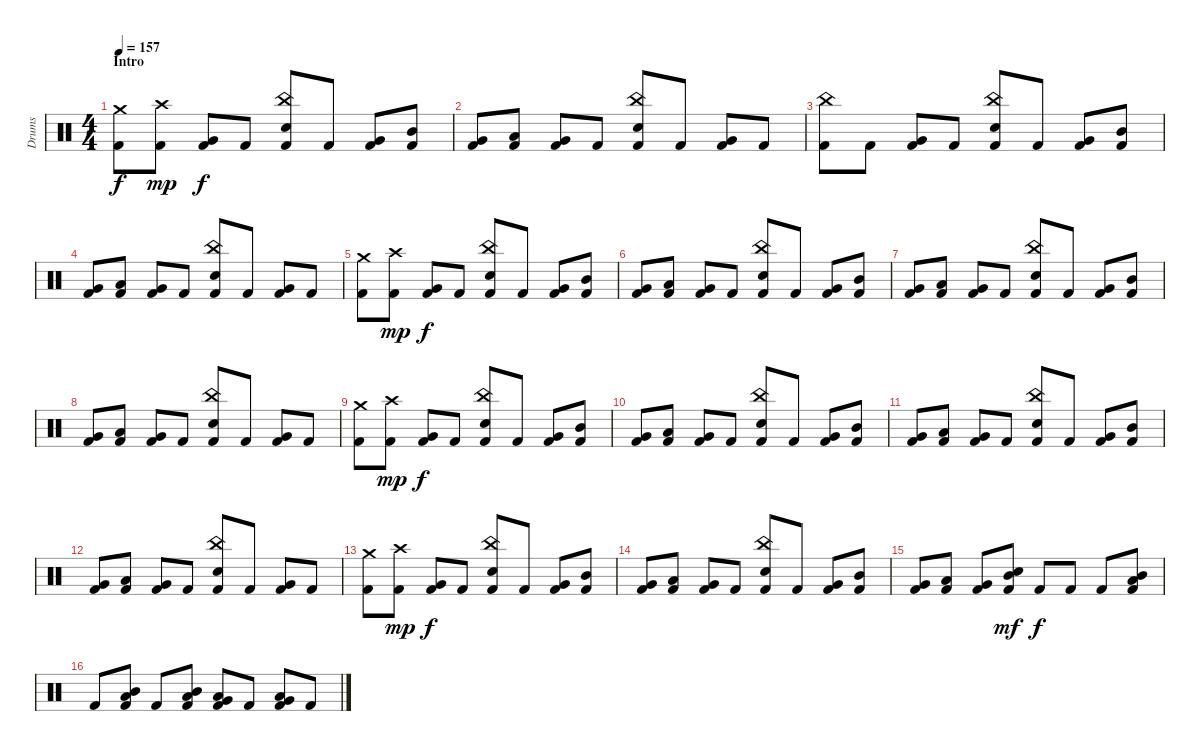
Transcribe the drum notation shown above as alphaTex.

\track ("Drums" "Drums") {instrument percussion}
\staff {score}
\articulation defaults
\ts (4 4)
\section ("" "Intro")
\tempo 157
\clef neutral
\ks c
("Crash medium (hit)" "Kick (hit) 2").8{dy f} ("Crash high (hit)" "Kick (hit) 2").8{dy mp} ("Very Low Tom (hit)" "Kick (hit) 2").8{dy f} "Kick (hit) 2".8 ("China (hit)" "Electric Snare (hit)" "Kick (hit) 2").8 "Kick (hit) 2".8 ("Very Low Tom (hit)" "Kick (hit) 2").8 ("Mid Tom (hit)" "Kick (hit) 2").8 |
("Very Low Tom (hit)" "Kick (hit) 2").8 ("Low Tom (hit)" "Kick (hit) 2").8 ("Very Low Tom (hit)" "Kick (hit) 2").8 "Kick (hit) 2".8 ("China (hit)" "Electric Snare (hit)" "Kick (hit) 2").8 "Kick (hit) 2".8 ("Very Low Tom (hit)" "Kick (hit) 2").8 "Kick (hit) 2".8 |
("China (hit)" "Kick (hit) 2").8 "Kick (hit) 2".8 ("Very Low Tom (hit)" "Kick (hit) 2").8 "Kick (hit) 2".8 ("China (hit)" "Electric Snare (hit)" "Kick (hit) 2").8 "Kick (hit) 2".8 ("Very Low Tom (hit)" "Kick (hit) 2").8 ("Mid Tom (hit)" "Kick (hit) 2").8 |
("Very Low Tom (hit)" "Kick (hit) 2").8 ("Low Tom (hit)" "Kick (hit) 2").8 ("Very Low Tom (hit)" "Kick (hit) 2").8 "Kick (hit) 2".8 ("China (hit)" "Electric Snare (hit)" "Kick (hit) 2").8 "Kick (hit) 2".8 ("Very Low Tom (hit)" "Kick (hit) 2").8 "Kick (hit) 2".8 |
("Crash medium (hit)" "Kick (hit) 2").8 ("Crash high (hit)" "Kick (hit) 2").8{dy mp} ("Very Low Tom (hit)" "Kick (hit) 2").8{dy f} "Kick (hit) 2".8 ("China (hit)" "Electric Snare (hit)" "Kick (hit) 2").8 "Kick (hit) 2".8 ("Very Low Tom (hit)" "Kick (hit) 2").8 ("Mid Tom (hit)" "Kick (hit) 2").8 |
("Very Low Tom (hit)" "Kick (hit) 2").8 ("Low Tom (hit)" "Kick (hit) 2").8 ("Very Low Tom (hit)" "Kick (hit) 2").8 "Kick (hit) 2".8 ("China (hit)" "Electric Snare (hit)" "Kick (hit) 2").8 "Kick (hit) 2".8 ("Very Low Tom (hit)" "Kick (hit) 2").8 ("Mid Tom (hit)" "Kick (hit) 2").8 |
("Very Low Tom (hit)" "Kick (hit) 2").8 ("Low Tom (hit)" "Kick (hit) 2").8 ("Very Low Tom (hit)" "Kick (hit) 2").8 "Kick (hit) 2".8 ("China (hit)" "Electric Snare (hit)" "Kick (hit) 2").8 "Kick (hit) 2".8 ("Very Low Tom (hit)" "Kick (hit) 2").8 ("Mid Tom (hit)" "Kick (hit) 2").8 |
("Very Low Tom (hit)" "Kick (hit) 2").8 ("Low Tom (hit)" "Kick (hit) 2").8 ("Very Low Tom (hit)" "Kick (hit) 2").8 "Kick (hit) 2".8 ("China (hit)" "Electric Snare (hit)" "Kick (hit) 2").8 "Kick (hit) 2".8 ("Very Low Tom (hit)" "Kick (hit) 2").8 "Kick (hit) 2".8 |
("Crash medium (hit)" "Kick (hit) 2").8 ("Crash high (hit)" "Kick (hit) 2").8{dy mp} ("Very Low Tom (hit)" "Kick (hit) 2").8{dy f} "Kick (hit) 2".8 ("China (hit)" "Electric Snare (hit)" "Kick (hit) 2").8 "Kick (hit) 2".8 ("Very Low Tom (hit)" "Kick (hit) 2").8 ("Mid Tom (hit)" "Kick (hit) 2").8 |
("Very Low Tom (hit)" "Kick (hit) 2").8 ("Low Tom (hit)" "Kick (hit) 2").8 ("Very Low Tom (hit)" "Kick (hit) 2").8 "Kick (hit) 2".8 ("China (hit)" "Electric Snare (hit)" "Kick (hit) 2").8 "Kick (hit) 2".8 ("Very Low Tom (hit)" "Kick (hit) 2").8 ("Mid Tom (hit)" "Kick (hit) 2").8 |
("Very Low Tom (hit)" "Kick (hit) 2").8 ("Low Tom (hit)" "Kick (hit) 2").8 ("Very Low Tom (hit)" "Kick (hit) 2").8 "Kick (hit) 2".8 ("China (hit)" "Electric Snare (hit)" "Kick (hit) 2").8 "Kick (hit) 2".8 ("Very Low Tom (hit)" "Kick (hit) 2").8 ("Mid Tom (hit)" "Kick (hit) 2").8 |
("Very Low Tom (hit)" "Kick (hit) 2").8 ("Low Tom (hit)" "Kick (hit) 2").8 ("Very Low Tom (hit)" "Kick (hit) 2").8 "Kick (hit) 2".8 ("China (hit)" "Electric Snare (hit)" "Kick (hit) 2").8 "Kick (hit) 2".8 ("Very Low Tom (hit)" "Kick (hit) 2").8 "Kick (hit) 2".8 |
("Crash medium (hit)" "Kick (hit) 2").8 ("Crash high (hit)" "Kick (hit) 2").8{dy mp} ("Very Low Tom (hit)" "Kick (hit) 2").8{dy f} "Kick (hit) 2".8 ("China (hit)" "Electric Snare (hit)" "Kick (hit) 2").8 "Kick (hit) 2".8 ("Very Low Tom (hit)" "Kick (hit) 2").8 ("Mid Tom (hit)" "Kick (hit) 2").8 |
("Very Low Tom (hit)" "Kick (hit) 2").8 ("Low Tom (hit)" "Kick (hit) 2").8 ("Very Low Tom (hit)" "Kick (hit) 2").8 "Kick (hit) 2".8 ("China (hit)" "Electric Snare (hit)" "Kick (hit) 2").8 "Kick (hit) 2".8 ("Very Low Tom (hit)" "Kick (hit) 2").8 ("Mid Tom (hit)" "Kick (hit) 2").8 |
("Very Low Tom (hit)" "Kick (hit) 2").8 ("Low Tom (hit)" "Kick (hit) 2").8 ("Very Low Tom (hit)" "Kick (hit) 2").8 ("Mid Tom (hit)" "Electric Snare (hit)" "Kick (hit) 2").8{dy mf} "Kick (hit) 2".8{dy f} "Kick (hit) 2".8 "Kick (hit) 2".8 ("Mid Tom (hit)" "Low Tom (hit)" "Kick (hit) 2").8 |
"Kick (hit) 2".8 ("Mid Tom (hit)" "Low Tom (hit)" "Kick (hit) 2").8 "Kick (hit) 2".8 ("Mid Tom (hit)" "Low Tom (hit)" "Kick (hit) 2").8 ("Low Tom (hit)" "Very Low Tom (hit)" "Kick (hit) 2").8 "Kick (hit) 2".8 ("Low Tom (hit)" "Very Low Tom (hit)" "Kick (hit) 2").8 "Kick (hit) 2".8
